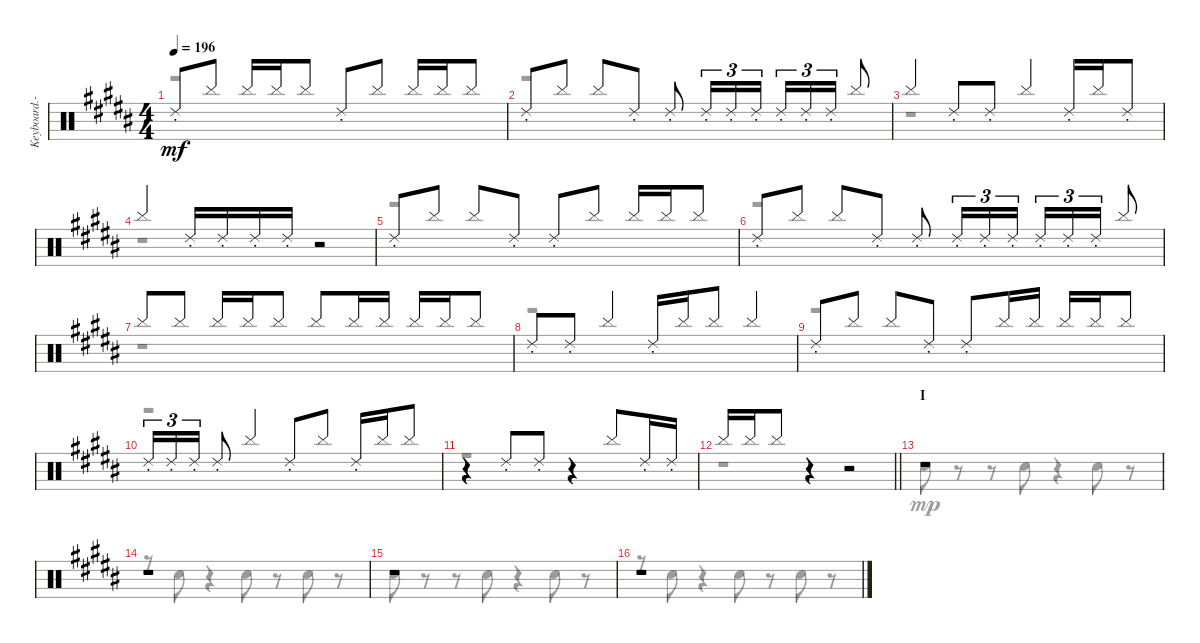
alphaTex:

\track ("Keyboard.-III" "Keyboard.-") {instrument percussion}
\staff {score}
\articulation defaults
\voice
\ts (4 4)
\tempo 196
\clef neutral
\ks b "Ride (choke) 2".8{dy mf} "Cymbal (hit)".8 "Cymbal (hit)".16 "Cymbal (hit)".16 "Cymbal (hit)".8 "Ride (choke) 2".8 "Cymbal (hit)".8 "Cymbal (hit)".16 "Cymbal (hit)".16 "Cymbal (hit)".8
|
"Ride (choke) 2".8 "Cymbal (hit)".8 "Cymbal (hit)".8 "Ride (choke) 2".8 "Ride (choke) 2".8 "Ride (choke) 2".16{tu (3 2)} "Ride (choke) 2".16{tu (3 2)} "Ride (choke) 2".16{tu (3 2)} "Ride (choke) 2".16{tu (3 2)} "Ride (choke) 2".16{tu (3 2)} "Ride (choke) 2".16{tu (3 2)} "Cymbal (hit)".8 |
"Cymbal (hit)".4 "Ride (choke) 2".8 "Ride (choke) 2".8 "Cymbal (hit)".4 "Ride (choke) 2".16 "Cymbal (hit)".16 "Ride (choke) 2".8 |
"Cymbal (hit)".4 "Ride (choke) 2".16 "Ride (choke) 2".16 "Ride (choke) 2".16 "Ride (choke) 2".16 r.2 |
"Ride (choke) 2".8 "Cymbal (hit)".8 "Cymbal (hit)".8 "Ride (choke) 2".8 "Ride (choke) 2".8 "Cymbal (hit)".8 "Cymbal (hit)".16 "Cymbal (hit)".16 "Cymbal (hit)".8 |
"Ride (choke) 2".8 "Cymbal (hit)".8 "Cymbal (hit)".8 "Ride (choke) 2".8 "Ride (choke) 2".8 "Ride (choke) 2".16{tu (3 2)} "Ride (choke) 2".16{tu (3 2)} "Ride (choke) 2".16{tu (3 2)} "Ride (choke) 2".16{tu (3 2)} "Ride (choke) 2".16{tu (3 2)} "Ride (choke) 2".16{tu (3 2)} "Cymbal (hit)".8 |
"Cymbal (hit)".8 "Cymbal (hit)".8 "Cymbal (hit)".16 "Cymbal (hit)".16 "Cymbal (hit)".8 "Cymbal (hit)".8 "Cymbal (hit)".16 "Cymbal (hit)".16 "Cymbal (hit)".16 "Cymbal (hit)".16 "Cymbal (hit)".8 |
"Ride (choke) 2".8 "Ride (choke) 2".8 "Cymbal (hit)".4 "Ride (choke) 2".16 "Cymbal (hit)".16 "Cymbal (hit)".8 "Cymbal (hit)".4 |
"Ride (choke) 2".8 "Cymbal (hit)".8 "Cymbal (hit)".8 "Ride (choke) 2".8 "Ride (choke) 2".8 "Cymbal (hit)".16 "Cymbal (hit)".16 "Cymbal (hit)".16 "Cymbal (hit)".16 "Cymbal (hit)".8 |
"Ride (choke) 2".16{tu (3 2)} "Ride (choke) 2".16{tu (3 2)} "Ride (choke) 2".16{tu (3 2)} "Ride (choke) 2".8 "Cymbal (hit)".4 "Ride (choke) 2".8 "Cymbal (hit)".8 "Ride (choke) 2".16 "Cymbal (hit)".16 "Cymbal (hit)".8 |
r.4 "Ride (choke) 2".8 "Ride (choke) 2".8 r.4 "Cymbal (hit)".8 "Ride (choke) 2".16 "Ride (choke) 2".16 |
\barLineRight lightlight "Cymbal (hit)".16 "Cymbal (hit)".16 "Cymbal (hit)".8
r.4 r.2 |
\section ("" "I")
r.1 |
r.1 |
r.1 |
r.1
\voice
\clef neutral
\ottava regular
\simile none
\ks b
r.1{dy mp} |
r.1 |
r.1 |
r.1 |
r.1 |
r.1 |
r.1 |
r.1 |
r.1 |
r.1 |
r.1 |
\barLineRight lightlight
r.1 |
"Hand Clap (hit)".8 r.8 r.8 "Hand Clap (hit)".8 r.4 "Hand Clap (hit)".8 r.8 |
r.8 "Hand Clap (hit)".8 r.4 "Hand Clap (hit)".8 r.8 "Hand Clap (hit)".8 r.8 |
"Hand Clap (hit)".8 r.8 r.8 "Hand Clap (hit)".8 r.4 "Hand Clap (hit)".8 r.8 |
r.8 "Hand Clap (hit)".8 r.4 "Hand Clap (hit)".8 r.8 "Hand Clap (hit)".8 r.8
